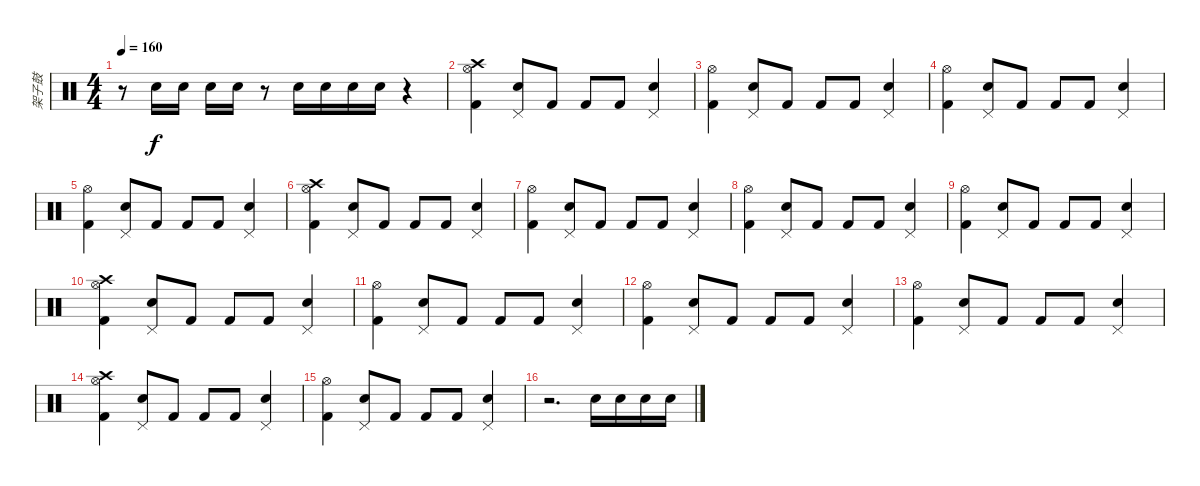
\track ("架子鼓" "架子鼓") {instrument percussion}
\staff {score}
\articulation defaults
\ts (4 4)
\tempo 160
\clef neutral
\ks c
r.8{dy f} "Electric Snare (hit)".16 "Electric Snare (hit)".16 "Electric Snare (hit)".16 "Electric Snare (hit)".16 r.8 "Electric Snare (hit)".16 "Electric Snare (hit)".16 "Electric Snare (hit)".16 "Electric Snare (hit)".16 r.4 |
("Kick (hit) 2" "Hi-Hat (open)" "Crash high (hit)").4 ("Electric Snare (hit)" "Pedal Hi-Hat (hit)").8 "Kick (hit) 2".8 "Kick (hit) 2".8 "Kick (hit) 2".8 ("Electric Snare (hit)" "Pedal Hi-Hat (hit)").4 |
("Kick (hit) 2" "Hi-Hat (open)").4 ("Electric Snare (hit)" "Pedal Hi-Hat (hit)").8 "Kick (hit) 2".8 "Kick (hit) 2".8 "Kick (hit) 2".8 ("Electric Snare (hit)" "Pedal Hi-Hat (hit)").4 |
("Kick (hit) 2" "Hi-Hat (open)").4 ("Electric Snare (hit)" "Pedal Hi-Hat (hit)").8 "Kick (hit) 2".8 "Kick (hit) 2".8 "Kick (hit) 2".8 ("Electric Snare (hit)" "Pedal Hi-Hat (hit)").4 |
("Kick (hit) 2" "Hi-Hat (open)").4 ("Electric Snare (hit)" "Pedal Hi-Hat (hit)").8 "Kick (hit) 2".8 "Kick (hit) 2".8 "Kick (hit) 2".8 ("Electric Snare (hit)" "Pedal Hi-Hat (hit)").4 |
("Kick (hit) 2" "Hi-Hat (open)" "Crash high (hit)").4 ("Electric Snare (hit)" "Pedal Hi-Hat (hit)").8 "Kick (hit) 2".8 "Kick (hit) 2".8 "Kick (hit) 2".8 ("Electric Snare (hit)" "Pedal Hi-Hat (hit)").4 |
("Kick (hit) 2" "Hi-Hat (open)").4 ("Electric Snare (hit)" "Pedal Hi-Hat (hit)").8 "Kick (hit) 2".8 "Kick (hit) 2".8 "Kick (hit) 2".8 ("Electric Snare (hit)" "Pedal Hi-Hat (hit)").4 |
("Kick (hit) 2" "Hi-Hat (open)").4 ("Electric Snare (hit)" "Pedal Hi-Hat (hit)").8 "Kick (hit) 2".8 "Kick (hit) 2".8 "Kick (hit) 2".8 ("Electric Snare (hit)" "Pedal Hi-Hat (hit)").4 |
("Kick (hit) 2" "Hi-Hat (open)").4 ("Electric Snare (hit)" "Pedal Hi-Hat (hit)").8 "Kick (hit) 2".8 "Kick (hit) 2".8 "Kick (hit) 2".8 ("Electric Snare (hit)" "Pedal Hi-Hat (hit)").4 |
("Kick (hit) 2" "Hi-Hat (open)" "Crash high (hit)").4 ("Electric Snare (hit)" "Pedal Hi-Hat (hit)").8 "Kick (hit) 2".8 "Kick (hit) 2".8 "Kick (hit) 2".8 ("Electric Snare (hit)" "Pedal Hi-Hat (hit)").4 |
("Kick (hit) 2" "Hi-Hat (open)").4 ("Electric Snare (hit)" "Pedal Hi-Hat (hit)").8 "Kick (hit) 2".8 "Kick (hit) 2".8 "Kick (hit) 2".8 ("Electric Snare (hit)" "Pedal Hi-Hat (hit)").4 |
("Kick (hit) 2" "Hi-Hat (open)").4 ("Electric Snare (hit)" "Pedal Hi-Hat (hit)").8 "Kick (hit) 2".8 "Kick (hit) 2".8 "Kick (hit) 2".8 ("Electric Snare (hit)" "Pedal Hi-Hat (hit)").4 |
("Kick (hit) 2" "Hi-Hat (open)").4 ("Electric Snare (hit)" "Pedal Hi-Hat (hit)").8 "Kick (hit) 2".8 "Kick (hit) 2".8 "Kick (hit) 2".8 ("Electric Snare (hit)" "Pedal Hi-Hat (hit)").4 |
("Kick (hit) 2" "Hi-Hat (open)" "Crash high (hit)").4 ("Electric Snare (hit)" "Pedal Hi-Hat (hit)").8 "Kick (hit) 2".8 "Kick (hit) 2".8 "Kick (hit) 2".8 ("Electric Snare (hit)" "Pedal Hi-Hat (hit)").4 |
("Kick (hit) 2" "Hi-Hat (open)").4 ("Electric Snare (hit)" "Pedal Hi-Hat (hit)").8 "Kick (hit) 2".8 "Kick (hit) 2".8 "Kick (hit) 2".8 ("Electric Snare (hit)" "Pedal Hi-Hat (hit)").4 |
r.2{d} "Electric Snare (hit)".16 "Electric Snare (hit)".16 "Electric Snare (hit)".16 "Electric Snare (hit)".16
